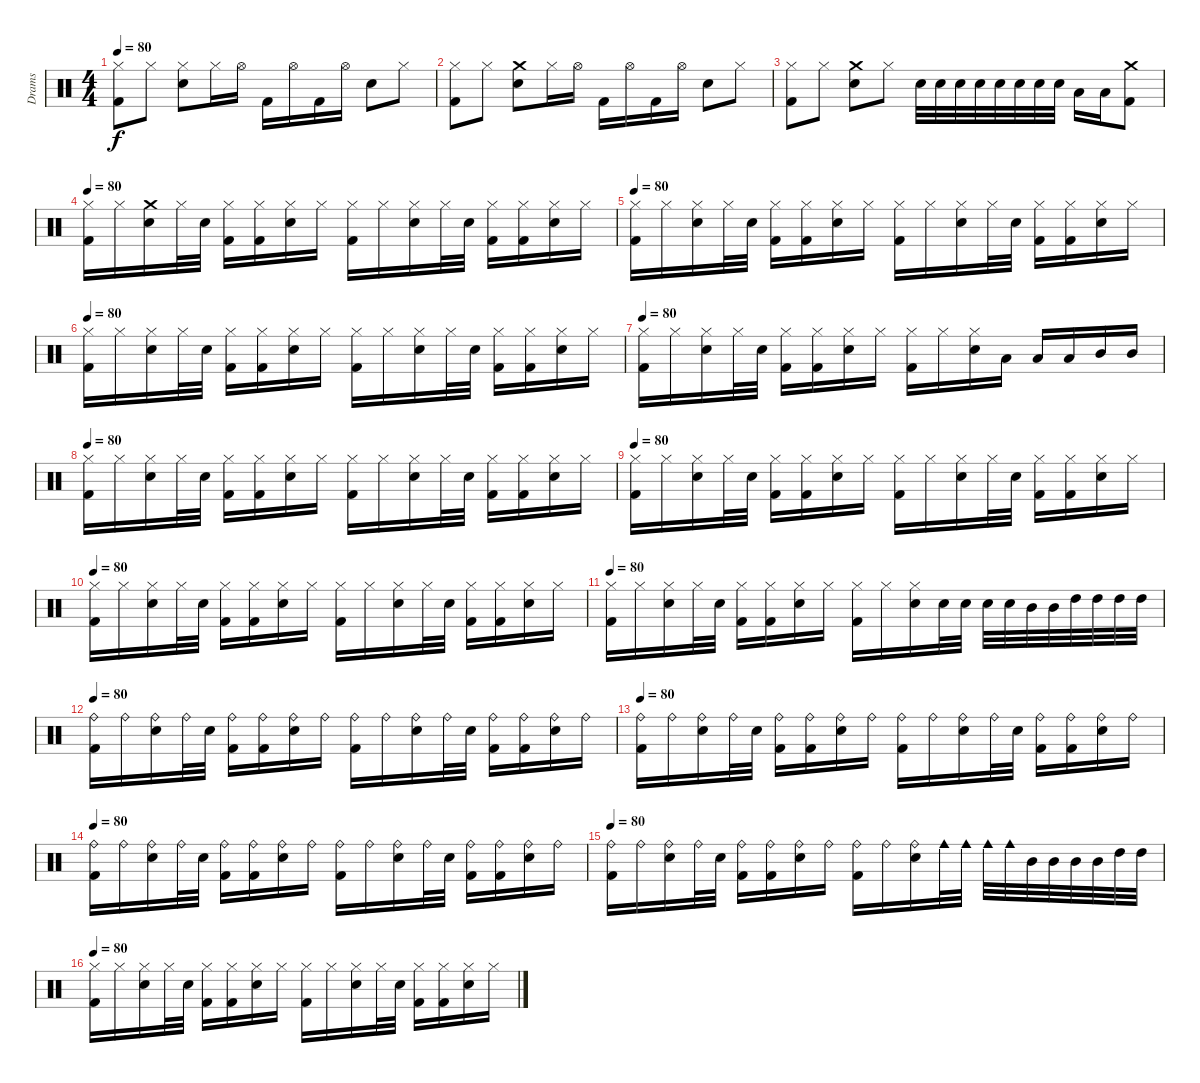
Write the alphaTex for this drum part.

\track ("Drams" "Drams") {instrument percussion}
\staff {score}
\articulation defaults
\ts (4 4)
\tempo 80
\clef neutral
\ks aminor
("Hi-Hat (closed)" "Kick (hit) 2").8{dy f} "Hi-Hat (closed)".8 ("Hi-Hat (closed)" "Electric Snare (hit)").8 "Hi-Hat (closed)".16 "Hi-Hat (open)".16 "Kick (hit) 2".16 "Hi-Hat (open)".16 "Kick (hit) 2".16 "Hi-Hat (open)".16 "Electric Snare (hit)".8 "Hi-Hat (closed)".8 |
("Hi-Hat (closed)" "Kick (hit) 2").8 "Hi-Hat (closed)".8 ("Crash medium (hit)" "Electric Snare (hit)").8 "Hi-Hat (closed)".16 "Hi-Hat (open)".16 "Kick (hit) 2".16 "Hi-Hat (open)".16 "Kick (hit) 2".16 "Hi-Hat (open)".16 "Electric Snare (hit)".8 "Hi-Hat (closed)".8 |
("Hi-Hat (closed)" "Kick (hit) 2").8 "Hi-Hat (closed)".8 ("Crash medium (hit)" "Electric Snare (hit)").8 "Hi-Hat (closed)".8 "Electric Snare (hit)".32 "Electric Snare (hit)".32 "Electric Snare (hit)".32 "Electric Snare (hit)".32 "Electric Snare (hit)".32 "Electric Snare (hit)".32 "Electric Snare (hit)".32 "Electric Snare (hit)".32 "Low Tom (hit)".16 "Low Tom (hit)".16 ("Crash medium (hit)" "Kick (hit) 2").8 |
\tempo 80
("Hi-Hat (closed)" "Kick (hit) 2").16 "Hi-Hat (closed)".16 ("Crash medium (hit)" "Electric Snare (hit)").16 "Hi-Hat (closed)".32 "Electric Snare (hit)".32 ("Hi-Hat (closed)" "Kick (hit) 2").16 ("Hi-Hat (closed)" "Kick (hit) 2").16 ("Hi-Hat (closed)" "Electric Snare (hit)").16 "Hi-Hat (closed)".16 ("Hi-Hat (closed)" "Kick (hit) 2").16 "Hi-Hat (closed)".16 ("Hi-Hat (closed)" "Electric Snare (hit)").16 "Hi-Hat (closed)".32 "Electric Snare (hit)".32 ("Kick (hit) 2" "Hi-Hat (closed)").16 ("Kick (hit) 2" "Hi-Hat (closed)").16 ("Electric Snare (hit)" "Hi-Hat (closed)").16 "Hi-Hat (closed)".16 |
\tempo 80
("Hi-Hat (closed)" "Kick (hit) 2").16 "Hi-Hat (closed)".16 ("Hi-Hat (closed)" "Electric Snare (hit)").16 "Hi-Hat (closed)".32 "Electric Snare (hit)".32 ("Hi-Hat (closed)" "Kick (hit) 2").16 ("Hi-Hat (closed)" "Kick (hit) 2").16 ("Hi-Hat (closed)" "Electric Snare (hit)").16 "Hi-Hat (closed)".16 ("Hi-Hat (closed)" "Kick (hit) 2").16 "Hi-Hat (closed)".16 ("Hi-Hat (closed)" "Electric Snare (hit)").16 "Hi-Hat (closed)".32 "Electric Snare (hit)".32 ("Kick (hit) 2" "Hi-Hat (closed)").16 ("Kick (hit) 2" "Hi-Hat (closed)").16 ("Electric Snare (hit)" "Hi-Hat (closed)").16 "Hi-Hat (closed)".16 |
\tempo 80
("Hi-Hat (closed)" "Kick (hit) 2").16 "Hi-Hat (closed)".16 ("Hi-Hat (closed)" "Electric Snare (hit)").16 "Hi-Hat (closed)".32 "Electric Snare (hit)".32 ("Hi-Hat (closed)" "Kick (hit) 2").16 ("Hi-Hat (closed)" "Kick (hit) 2").16 ("Hi-Hat (closed)" "Electric Snare (hit)").16 "Hi-Hat (closed)".16 ("Hi-Hat (closed)" "Kick (hit) 2").16 "Hi-Hat (closed)".16 ("Hi-Hat (closed)" "Electric Snare (hit)").16 "Hi-Hat (closed)".32 "Electric Snare (hit)".32 ("Kick (hit) 2" "Hi-Hat (closed)").16 ("Kick (hit) 2" "Hi-Hat (closed)").16 ("Electric Snare (hit)" "Hi-Hat (closed)").16 "Hi-Hat (closed)".16 |
\tempo 80
("Hi-Hat (closed)" "Kick (hit) 2").16 "Hi-Hat (closed)".16 ("Hi-Hat (closed)" "Electric Snare (hit)").16 "Hi-Hat (closed)".32 "Electric Snare (hit)".32 ("Hi-Hat (closed)" "Kick (hit) 2").16 ("Hi-Hat (closed)" "Kick (hit) 2").16 ("Hi-Hat (closed)" "Electric Snare (hit)").16 "Hi-Hat (closed)".16 ("Hi-Hat (closed)" "Kick (hit) 2").16 "Hi-Hat (closed)".16 ("Hi-Hat (closed)" "Electric Snare (hit)").16 "Low Tom (hit)".16 "Low Tom (hit)".16 "Low Tom (hit)".16 "Mid Tom (hit)".16 "Mid Tom (hit)".16 |
\tempo 80
("Hi-Hat (closed)" "Kick (hit) 2").16 "Hi-Hat (closed)".16 ("Hi-Hat (closed)" "Electric Snare (hit)").16 "Hi-Hat (closed)".32 "Electric Snare (hit)".32 ("Hi-Hat (closed)" "Kick (hit) 2").16 ("Hi-Hat (closed)" "Kick (hit) 2").16 ("Hi-Hat (closed)" "Electric Snare (hit)").16 "Hi-Hat (closed)".16 ("Hi-Hat (closed)" "Kick (hit) 2").16 "Hi-Hat (closed)".16 ("Hi-Hat (closed)" "Electric Snare (hit)").16 "Hi-Hat (closed)".32 "Electric Snare (hit)".32 ("Kick (hit) 2" "Hi-Hat (closed)").16 ("Kick (hit) 2" "Hi-Hat (closed)").16 ("Electric Snare (hit)" "Hi-Hat (closed)").16 "Hi-Hat (closed)".16 |
\tempo 80
("Hi-Hat (closed)" "Kick (hit) 2").16 "Hi-Hat (closed)".16 ("Hi-Hat (closed)" "Electric Snare (hit)").16 "Hi-Hat (closed)".32 "Electric Snare (hit)".32 ("Hi-Hat (closed)" "Kick (hit) 2").16 ("Hi-Hat (closed)" "Kick (hit) 2").16 ("Hi-Hat (closed)" "Electric Snare (hit)").16 "Hi-Hat (closed)".16 ("Hi-Hat (closed)" "Kick (hit) 2").16 "Hi-Hat (closed)".16 ("Hi-Hat (closed)" "Electric Snare (hit)").16 "Hi-Hat (closed)".32 "Electric Snare (hit)".32 ("Kick (hit) 2" "Hi-Hat (closed)").16 ("Kick (hit) 2" "Hi-Hat (closed)").16 ("Electric Snare (hit)" "Hi-Hat (closed)").16 "Hi-Hat (closed)".16 |
\tempo 80
("Hi-Hat (closed)" "Kick (hit) 2").16 "Hi-Hat (closed)".16 ("Hi-Hat (closed)" "Electric Snare (hit)").16 "Hi-Hat (closed)".32 "Electric Snare (hit)".32 ("Hi-Hat (closed)" "Kick (hit) 2").16 ("Hi-Hat (closed)" "Kick (hit) 2").16 ("Hi-Hat (closed)" "Electric Snare (hit)").16 "Hi-Hat (closed)".16 ("Hi-Hat (closed)" "Kick (hit) 2").16 "Hi-Hat (closed)".16 ("Hi-Hat (closed)" "Electric Snare (hit)").16 "Hi-Hat (closed)".32 "Electric Snare (hit)".32 ("Kick (hit) 2" "Hi-Hat (closed)").16 ("Kick (hit) 2" "Hi-Hat (closed)").16 ("Electric Snare (hit)" "Hi-Hat (closed)").16 "Hi-Hat (closed)".16 |
\tempo 80
("Hi-Hat (closed)" "Kick (hit) 2").16 "Hi-Hat (closed)".16 ("Hi-Hat (closed)" "Electric Snare (hit)").16 "Hi-Hat (closed)".32 "Electric Snare (hit)".32 ("Hi-Hat (closed)" "Kick (hit) 2").16 ("Hi-Hat (closed)" "Kick (hit) 2").16 ("Hi-Hat (closed)" "Electric Snare (hit)").16 "Hi-Hat (closed)".16 ("Hi-Hat (closed)" "Kick (hit) 2").16 "Hi-Hat (closed)".16 ("Hi-Hat (closed)" "Electric Snare (hit)").16 "Electric Snare (hit)".32 "Electric Snare (hit)".32 "Electric Snare (hit)".32 "Electric Snare (hit)".32 "Mid Tom (hit)".32 "Mid Tom (hit)".32 "High Tom (hit)".32 "High Tom (hit)".32 "High Tom (hit)".32 "High Tom (hit)".32 |
\tempo 80
("Ride (bell)" "Kick (hit) 2").16 "Ride (bell)".16 ("Ride (bell)" "Electric Snare (hit)").16 "Ride (bell)".32 "Electric Snare (hit)".32 ("Ride (bell)" "Kick (hit) 2").16 ("Ride (bell)" "Kick (hit) 2").16 ("Ride (bell)" "Electric Snare (hit)").16 "Ride (bell)".16 ("Ride (bell)" "Kick (hit) 2").16 "Ride (bell)".16 ("Ride (bell)" "Electric Snare (hit)").16 "Ride (bell)".32 "Electric Snare (hit)".32 ("Kick (hit) 2" "Ride (bell)").16 ("Kick (hit) 2" "Ride (bell)").16 ("Electric Snare (hit)" "Ride (bell)").16 "Ride (bell)".16 |
\tempo 80
("Ride (bell)" "Kick (hit) 2").16 "Ride (bell)".16 ("Ride (bell)" "Electric Snare (hit)").16 "Ride (bell)".32 "Electric Snare (hit)".32 ("Ride (bell)" "Kick (hit) 2").16 ("Ride (bell)" "Kick (hit) 2").16 ("Ride (bell)" "Electric Snare (hit)").16 "Ride (bell)".16 ("Ride (bell)" "Kick (hit) 2").16 "Ride (bell)".16 ("Ride (bell)" "Electric Snare (hit)").16 "Ride (bell)".32 "Electric Snare (hit)".32 ("Kick (hit) 2" "Ride (bell)").16 ("Kick (hit) 2" "Ride (bell)").16 ("Electric Snare (hit)" "Ride (bell)").16 "Ride (bell)".16 |
\tempo 80
("Ride (bell)" "Kick (hit) 2").16 "Ride (bell)".16 ("Ride (bell)" "Electric Snare (hit)").16 "Ride (bell)".32 "Electric Snare (hit)".32 ("Ride (bell)" "Kick (hit) 2").16 ("Ride (bell)" "Kick (hit) 2").16 ("Ride (bell)" "Electric Snare (hit)").16 "Ride (bell)".16 ("Ride (bell)" "Kick (hit) 2").16 "Ride (bell)".16 ("Ride (bell)" "Electric Snare (hit)").16 "Ride (bell)".32 "Electric Snare (hit)".32 ("Kick (hit) 2" "Ride (bell)").16 ("Kick (hit) 2" "Ride (bell)").16 ("Electric Snare (hit)" "Ride (bell)").16 "Ride (bell)".16 |
\tempo 80
("Ride (bell)" "Kick (hit) 2").16 "Ride (bell)".16 ("Ride (bell)" "Electric Snare (hit)").16 "Ride (bell)".32 "Electric Snare (hit)".32 ("Ride (bell)" "Kick (hit) 2").16 ("Ride (bell)" "Kick (hit) 2").16 ("Ride (bell)" "Electric Snare (hit)").16 "Ride (bell)".16 ("Ride (bell)" "Kick (hit) 2").16 "Ride (bell)".16 ("Ride (bell)" "Electric Snare (hit)").16 "Cowbell medium (hit)".32 "Cowbell medium (hit)".32 "Cowbell medium (hit)".32 "Cowbell medium (hit)".32 "Mid Tom (hit)".32 "Mid Tom (hit)".32 "Mid Tom (hit)".32 "Mid Tom (hit)".32 "High Tom (hit)".32 "High Tom (hit)".32 |
\tempo 80
("Hi-Hat (closed)" "Kick (hit) 2").16 "Hi-Hat (closed)".16 ("Hi-Hat (closed)" "Electric Snare (hit)").16 "Hi-Hat (closed)".32 "Electric Snare (hit)".32 ("Hi-Hat (closed)" "Kick (hit) 2").16 ("Hi-Hat (closed)" "Kick (hit) 2").16 ("Hi-Hat (closed)" "Electric Snare (hit)").16 "Hi-Hat (closed)".16 ("Hi-Hat (closed)" "Kick (hit) 2").16 "Hi-Hat (closed)".16 ("Hi-Hat (closed)" "Electric Snare (hit)").16 "Hi-Hat (closed)".32 "Electric Snare (hit)".32 ("Kick (hit) 2" "Hi-Hat (closed)").16 ("Kick (hit) 2" "Hi-Hat (closed)").16 ("Electric Snare (hit)" "Hi-Hat (closed)").16 "Hi-Hat (closed)".16
